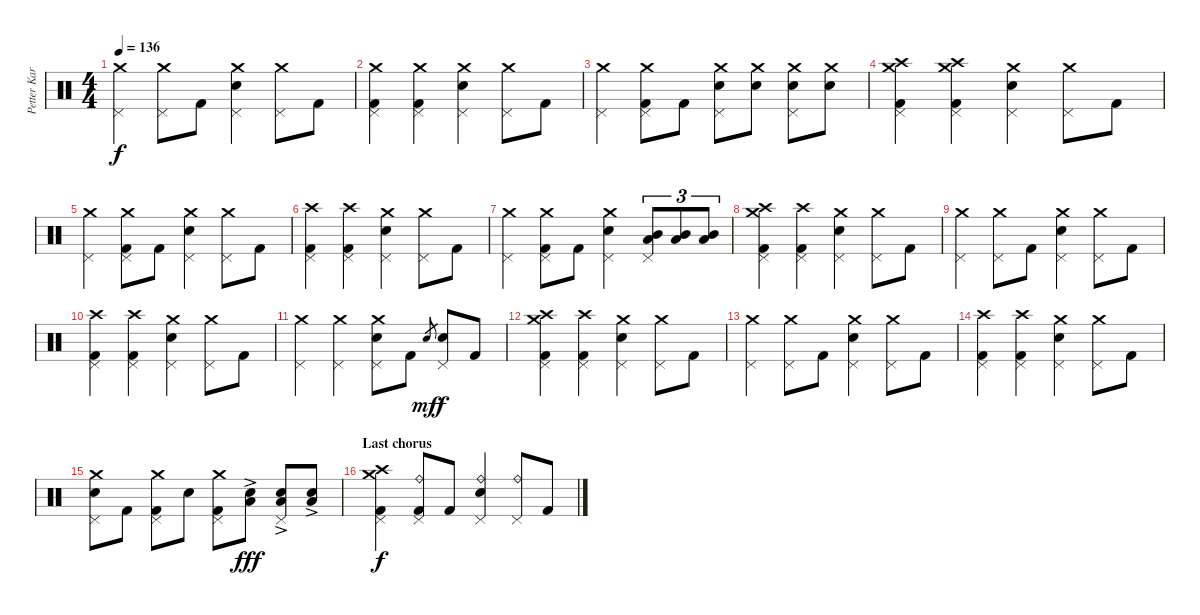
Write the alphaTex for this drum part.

\track ("Petter Karlsson" "Petter Kar") {instrument percussion}
\staff {score}
\articulation defaults
\ts (4 4)
\tempo 136
\clef neutral
\ks c
("Crash medium (hit)" "Pedal Hi-Hat (hit)").4{dy f} ("Crash medium (hit)" "Pedal Hi-Hat (hit)").8 "Kick (hit) 2".8 ("Crash medium (hit)" "Snare (hit) 2" "Pedal Hi-Hat (hit)").4 ("Crash medium (hit)" "Pedal Hi-Hat (hit)").8 "Kick (hit) 2".8 |
("Crash medium (hit)" "Pedal Hi-Hat (hit)" "Kick (hit) 2").4 ("Crash medium (hit)" "Pedal Hi-Hat (hit)" "Kick (hit) 2").4 ("Crash medium (hit)" "Snare (hit) 2" "Pedal Hi-Hat (hit)").4 ("Crash medium (hit)" "Pedal Hi-Hat (hit)").8 "Kick (hit) 2".8 |
("Crash medium (hit)" "Pedal Hi-Hat (hit)").4 ("Crash medium (hit)" "Pedal Hi-Hat (hit)" "Kick (hit) 2").8 "Kick (hit) 2".8 ("Crash medium (hit)" "Snare (hit) 2" "Pedal Hi-Hat (hit)").8 ("Crash medium (hit)" "Snare (hit) 2").8 ("Crash medium (hit)" "Snare (hit) 2" "Pedal Hi-Hat (hit)").8 ("Crash medium (hit)" "Snare (hit) 2").8 |
("Crash high (hit)" "Crash medium (hit)" "Pedal Hi-Hat (hit)" "Kick (hit) 2").4 ("Crash high (hit)" "Crash medium (hit)" "Pedal Hi-Hat (hit)" "Kick (hit) 2").4 ("Crash medium (hit)" "Snare (hit) 2" "Pedal Hi-Hat (hit)").4 ("Crash medium (hit)" "Pedal Hi-Hat (hit)").8 "Kick (hit) 2".8 |
("Crash medium (hit)" "Pedal Hi-Hat (hit)").4 ("Crash medium (hit)" "Pedal Hi-Hat (hit)" "Kick (hit) 2").8 "Kick (hit) 2".8 ("Crash medium (hit)" "Snare (hit) 2" "Pedal Hi-Hat (hit)").4 ("Crash medium (hit)" "Pedal Hi-Hat (hit)").8 "Kick (hit) 2".8 |
("Crash high (hit)" "Pedal Hi-Hat (hit)" "Kick (hit) 2").4 ("Crash high (hit)" "Pedal Hi-Hat (hit)" "Kick (hit) 2").4 ("Crash medium (hit)" "Snare (hit) 2" "Pedal Hi-Hat (hit)").4 ("Crash medium (hit)" "Pedal Hi-Hat (hit)").8 "Kick (hit) 2".8 |
("Crash medium (hit)" "Pedal Hi-Hat (hit)").4 ("Crash medium (hit)" "Pedal Hi-Hat (hit)" "Kick (hit) 2").8 "Kick (hit) 2".8 ("Crash medium (hit)" "Snare (hit) 2" "Pedal Hi-Hat (hit)").4 ("Mid Tom (hit)" "Low Tom (hit)" "Pedal Hi-Hat (hit)").8{tu (3 2)} ("Mid Tom (hit)" "Low Tom (hit)").8{tu (3 2)} ("Mid Tom (hit)" "Low Tom (hit)").8{tu (3 2)} |
("Crash high (hit)" "Crash medium (hit)" "Pedal Hi-Hat (hit)" "Kick (hit) 2").4 ("Crash high (hit)" "Pedal Hi-Hat (hit)" "Kick (hit) 2").4 ("Crash medium (hit)" "Snare (hit) 2" "Pedal Hi-Hat (hit)").4 ("Crash medium (hit)" "Pedal Hi-Hat (hit)").8 "Kick (hit) 2".8 |
("Crash medium (hit)" "Pedal Hi-Hat (hit)").4 ("Crash medium (hit)" "Pedal Hi-Hat (hit)").8 "Kick (hit) 2".8 ("Crash medium (hit)" "Snare (hit) 2" "Pedal Hi-Hat (hit)").4 ("Crash medium (hit)" "Pedal Hi-Hat (hit)").8 "Kick (hit) 2".8 |
("Crash high (hit)" "Pedal Hi-Hat (hit)" "Kick (hit) 2").4 ("Crash high (hit)" "Pedal Hi-Hat (hit)" "Kick (hit) 2").4 ("Crash medium (hit)" "Snare (hit) 2" "Pedal Hi-Hat (hit)").4 ("Crash medium (hit)" "Pedal Hi-Hat (hit)").8 "Kick (hit) 2".8 |
("Crash medium (hit)" "Pedal Hi-Hat (hit)").4 ("Crash medium (hit)" "Pedal Hi-Hat (hit)").4 ("Crash medium (hit)" "Snare (hit) 2" "Pedal Hi-Hat (hit)").8 "Kick (hit) 2".8 "Snare (hit) 2".8{gr dy mf} ("Snare (hit) 2" "Pedal Hi-Hat (hit)").8{dy f} "Kick (hit) 2".8 |
("Crash high (hit)" "Crash medium (hit)" "Pedal Hi-Hat (hit)" "Kick (hit) 2").4 ("Crash high (hit)" "Pedal Hi-Hat (hit)" "Kick (hit) 2").4 ("Crash medium (hit)" "Snare (hit) 2" "Pedal Hi-Hat (hit)").4 ("Crash medium (hit)" "Pedal Hi-Hat (hit)").8 "Kick (hit) 2".8 |
("Crash medium (hit)" "Pedal Hi-Hat (hit)").4 ("Crash medium (hit)" "Pedal Hi-Hat (hit)").8 "Kick (hit) 2".8 ("Crash medium (hit)" "Snare (hit) 2" "Pedal Hi-Hat (hit)").4 ("Crash medium (hit)" "Pedal Hi-Hat (hit)").8 "Kick (hit) 2".8 |
("Crash high (hit)" "Pedal Hi-Hat (hit)" "Kick (hit) 2").4 ("Crash high (hit)" "Pedal Hi-Hat (hit)" "Kick (hit) 2").4 ("Crash medium (hit)" "Snare (hit) 2" "Pedal Hi-Hat (hit)").4 ("Crash medium (hit)" "Pedal Hi-Hat (hit)").8 "Kick (hit) 2".8 |
("Crash medium (hit)" "Snare (hit) 2" "Pedal Hi-Hat (hit)").8 "Kick (hit) 2".8 ("Crash medium (hit)" "Pedal Hi-Hat (hit)" "Kick (hit) 2").8 "Snare (hit) 2".8 ("Crash medium (hit)" "Pedal Hi-Hat (hit)" "Kick (hit) 2").8 ("Snare (hit) 2" "Low Floor Tom (hit)"{ac}).8{dy fff} ("Snare (hit) 2" "Low Floor Tom (hit)"{ac} "Pedal Hi-Hat (hit)").8 ("Snare (hit) 2" "Low Floor Tom (hit)"{ac}).8 |
\section ("" "Last chorus")
("Crash high (hit)" "Crash medium (hit)" "Pedal Hi-Hat (hit)" "Kick (hit) 2").4{dy f} ("Ride (bell)" "Pedal Hi-Hat (hit)" "Kick (hit) 2").8 "Kick (hit) 2".8 ("Ride (bell)" "Snare (hit) 2" "Pedal Hi-Hat (hit)").4 ("Ride (bell)" "Pedal Hi-Hat (hit)").8 "Kick (hit) 2".8
